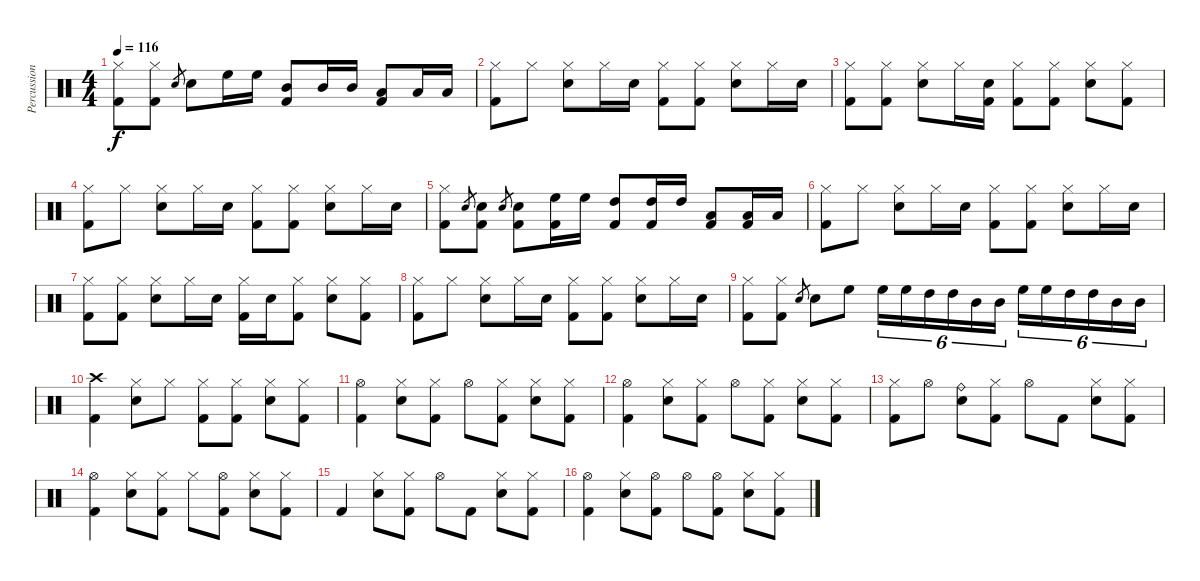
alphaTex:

\track ("Percussion" "Percussion") {instrument percussion}
\staff {score}
\articulation defaults
\ts (4 4)
\tempo 116
\clef neutral
\ks c
("Kick (hit) 2" "Hi-Hat (closed)").8{dy f} ("Kick (hit) 2" "Hi-Hat (closed)").8 "Snare (hit) 2".8{gr} "Snare (hit) 2".8 "High Floor Tom (hit)".16 "High Floor Tom (hit)".16 ("Kick (hit) 2" "Mid Tom (hit)").8 "Mid Tom (hit)".16 "Mid Tom (hit)".16 ("Kick (hit) 2" "Low Tom (hit)").8 "Low Tom (hit)".16 "Low Tom (hit)".16 |
("Kick (hit) 2" "Hi-Hat (closed)").8 "Hi-Hat (closed)".8 ("Snare (hit) 2" "Hi-Hat (closed)").8 "Hi-Hat (closed)".16 "Snare (hit) 2".16 ("Kick (hit) 2" "Hi-Hat (closed)").8 ("Kick (hit) 2" "Hi-Hat (closed)").8 ("Snare (hit) 2" "Hi-Hat (closed)").8 "Hi-Hat (closed)".16 "Snare (hit) 2".16 |
("Kick (hit) 2" "Hi-Hat (closed)").8 ("Kick (hit) 2" "Hi-Hat (closed)").8 ("Snare (hit) 2" "Hi-Hat (closed)").8 "Hi-Hat (closed)".16 ("Kick (hit) 2" "Snare (hit) 2").16 ("Kick (hit) 2" "Hi-Hat (closed)").8 ("Kick (hit) 2" "Hi-Hat (closed)").8 ("Snare (hit) 2" "Hi-Hat (closed)").8 ("Kick (hit) 2" "Hi-Hat (closed)").8 |
("Kick (hit) 2" "Hi-Hat (closed)").8 "Hi-Hat (closed)".8 ("Snare (hit) 2" "Hi-Hat (closed)").8 "Hi-Hat (closed)".16 "Snare (hit) 2".16 ("Kick (hit) 2" "Hi-Hat (closed)").8 ("Kick (hit) 2" "Hi-Hat (closed)").8 ("Snare (hit) 2" "Hi-Hat (closed)").8 "Hi-Hat (closed)".16 "Snare (hit) 2".16 |
("Kick (hit) 2" "Hi-Hat (closed)").8 "Snare (hit) 2".8{gr} ("Kick (hit) 2" "Snare (hit) 2").8 "Snare (hit) 2".8{gr} ("Kick (hit) 2" "Snare (hit) 2").8 ("Kick (hit) 2" "High Floor Tom (hit)").16 "High Floor Tom (hit)".16 ("Kick (hit) 2" "High Tom (hit)").8 ("Kick (hit) 2" "High Tom (hit)").16 "High Tom (hit)".16 ("Kick (hit) 2" "Low Tom (hit)").8 ("Kick (hit) 2" "Low Tom (hit)").16 "Low Tom (hit)".16 |
("Kick (hit) 2" "Hi-Hat (closed)").8 "Hi-Hat (closed)".8 ("Snare (hit) 2" "Hi-Hat (closed)").8 "Hi-Hat (closed)".16 "Snare (hit) 2".16 ("Kick (hit) 2" "Hi-Hat (closed)").8 ("Kick (hit) 2" "Hi-Hat (closed)").8 ("Snare (hit) 2" "Hi-Hat (closed)").8 "Hi-Hat (closed)".16 "Snare (hit) 2".16 |
("Kick (hit) 2" "Hi-Hat (closed)").8 ("Kick (hit) 2" "Hi-Hat (closed)").8 ("Snare (hit) 2" "Hi-Hat (closed)").8 "Hi-Hat (closed)".16 "Snare (hit) 2".16 ("Kick (hit) 2" "Hi-Hat (closed)").16 "Snare (hit) 2".16 ("Kick (hit) 2" "Hi-Hat (closed)").8 ("Snare (hit) 2" "Hi-Hat (closed)").8 ("Kick (hit) 2" "Hi-Hat (closed)").8 |
("Kick (hit) 2" "Hi-Hat (closed)").8 "Hi-Hat (closed)".8 ("Snare (hit) 2" "Hi-Hat (closed)").8 "Hi-Hat (closed)".16 "Snare (hit) 2".16 ("Kick (hit) 2" "Hi-Hat (closed)").8 ("Kick (hit) 2" "Hi-Hat (closed)").8 ("Snare (hit) 2" "Hi-Hat (closed)").8 "Hi-Hat (closed)".16 "Snare (hit) 2".16 |
("Kick (hit) 2" "Hi-Hat (closed)").8 ("Kick (hit) 2" "Hi-Hat (closed)").8 "Snare (hit) 2".8{gr} "Snare (hit) 2".8 "High Floor Tom (hit)".8 "High Floor Tom (hit)".16{tu (6 4)} "High Floor Tom (hit)".16{tu (6 4)} "High Tom (hit)".16{tu (6 4)} "High Tom (hit)".16{tu (6 4)} "Mid Tom (hit)".16{tu (6 4)} "Mid Tom (hit)".16{tu (6 4)} "High Floor Tom (hit)".16{tu (6 4)} "High Floor Tom (hit)".16{tu (6 4)} "High Tom (hit)".16{tu (6 4)} "High Tom (hit)".16{tu (6 4)} "Mid Tom (hit)".16{tu (6 4)} "Mid Tom (hit)".16{tu (6 4)} |
("Kick (hit) 2" "Crash high (hit)").4 ("Snare (hit) 2" "Hi-Hat (closed)").8 "Hi-Hat (closed)".8 ("Kick (hit) 2" "Hi-Hat (closed)").8 ("Kick (hit) 2" "Hi-Hat (closed)").8 ("Snare (hit) 2" "Hi-Hat (closed)").8 ("Kick (hit) 2" "Hi-Hat (closed)").8 |
("Kick (hit) 2" "Hi-Hat (open)").4 ("Snare (hit) 2" "Hi-Hat (closed)").8 ("Kick (hit) 2" "Hi-Hat (closed)").8 "Hi-Hat (open)".8 ("Kick (hit) 2" "Hi-Hat (closed)").8 ("Snare (hit) 2" "Hi-Hat (closed)").8 ("Kick (hit) 2" "Hi-Hat (closed)").8 |
("Kick (hit) 2" "Hi-Hat (open)").4 ("Snare (hit) 2" "Hi-Hat (closed)").8 ("Kick (hit) 2" "Hi-Hat (closed)").8 "Hi-Hat (open)".8 ("Kick (hit) 2" "Hi-Hat (closed)").8 ("Snare (hit) 2" "Hi-Hat (closed)").8 ("Kick (hit) 2" "Hi-Hat (closed)").8 |
("Kick (hit) 2" "Hi-Hat (closed)").8 "Hi-Hat (open)".8 ("Snare (hit) 2" "Ride (bell)").8 ("Kick (hit) 2" "Hi-Hat (closed)").8 "Hi-Hat (open)".8 "Kick (hit) 2".8 ("Snare (hit) 2" "Hi-Hat (closed)").8 ("Kick (hit) 2" "Hi-Hat (closed)").8 |
("Kick (hit) 2" "Hi-Hat (open)").4 ("Snare (hit) 2" "Hi-Hat (closed)").8 ("Kick (hit) 2" "Hi-Hat (closed)").8 "Hi-Hat (closed)".8 ("Kick (hit) 2" "Hi-Hat (open)").8 ("Snare (hit) 2" "Hi-Hat (closed)").8 ("Kick (hit) 2" "Hi-Hat (closed)").8 |
"Kick (hit) 2".4 ("Snare (hit) 2" "Hi-Hat (closed)").8 ("Kick (hit) 2" "Hi-Hat (closed)").8 "Hi-Hat (open)".8 "Kick (hit) 2".8 ("Snare (hit) 2" "Hi-Hat (closed)").8 ("Kick (hit) 2" "Hi-Hat (closed)").8 |
("Kick (hit) 2" "Hi-Hat (open)").4 ("Snare (hit) 2" "Hi-Hat (closed)").8 ("Kick (hit) 2" "Hi-Hat (open)").8 "Hi-Hat (open)".8 ("Kick (hit) 2" "Hi-Hat (open)").8 ("Snare (hit) 2" "Hi-Hat (closed)").8 ("Kick (hit) 2" "Hi-Hat (closed)").8
